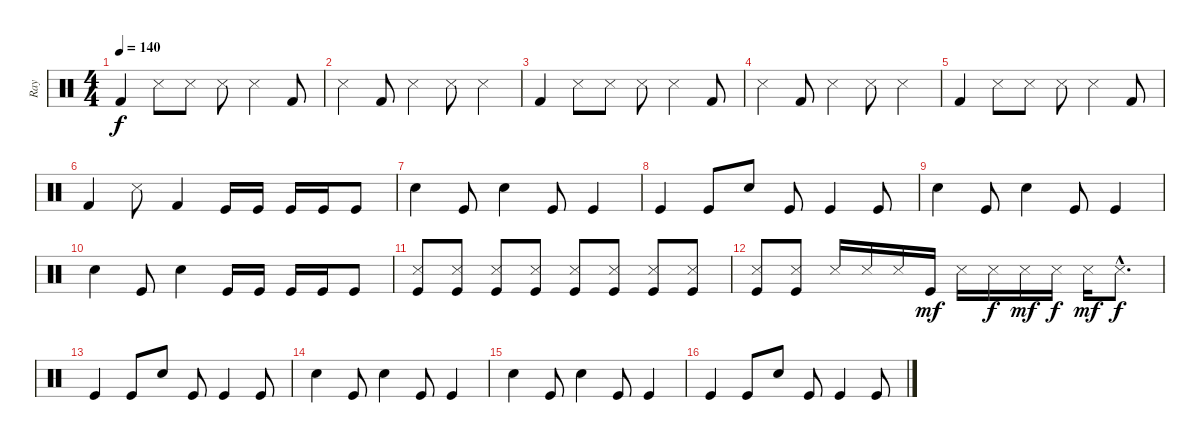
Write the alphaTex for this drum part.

\track ("Ray" "Ray") {instrument percussion}
\staff {score}
\articulation defaults
\ts (4 4)
\tempo 140
\clef neutral
\ks c "Kick (hit) 2".4{dy f} "Snare (side stick) 3".8 "Snare (side stick) 3".8 "Snare (side stick) 3".8 "Snare (side stick) 3".4 "Kick (hit) 2".8
|
"Snare (side stick) 3".4 "Kick (hit) 2".8 "Snare (side stick) 3".4 "Snare (side stick) 3".8 "Snare (side stick) 3".4 |
"Kick (hit) 2".4 "Snare (side stick) 3".8 "Snare (side stick) 3".8 "Snare (side stick) 3".8 "Snare (side stick) 3".4 "Kick (hit) 2".8 |
"Snare (side stick) 3".4 "Kick (hit) 2".8 "Snare (side stick) 3".4 "Snare (side stick) 3".8 "Snare (side stick) 3".4 |
"Kick (hit) 2".4 "Snare (side stick) 3".8 "Snare (side stick) 3".8 "Snare (side stick) 3".8 "Snare (side stick) 3".4 "Kick (hit) 2".8 |
"Kick (hit) 2".4 "Snare (side stick) 3".8 "Kick (hit) 2".4 "Kick (hit)".16 "Kick (hit)".16 "Kick (hit)".16 "Kick (hit)".16 "Kick (hit)".8 |
"Snare (hit) 2".4 "Kick (hit)".8 "Snare (hit) 2".4 "Kick (hit)".8 "Kick (hit)".4 |
"Kick (hit)".4 "Kick (hit)".8 "Snare (hit) 2".8 "Kick (hit)".8 "Kick (hit)".4 "Kick (hit)".8 |
"Snare (hit) 2".4 "Kick (hit)".8 "Snare (hit) 2".4 "Kick (hit)".8 "Kick (hit)".4 |
"Snare (hit) 2".4 "Kick (hit)".8 "Snare (hit) 2".4 "Kick (hit)".16 "Kick (hit)".16 "Kick (hit)".16 "Kick (hit)".16 "Kick (hit)".8 |
("Kick (hit)" "Snare (side stick) 3").8 ("Kick (hit)" "Snare (side stick) 3").8 ("Kick (hit)" "Snare (side stick) 3").8 ("Kick (hit)" "Snare (side stick) 3").8 ("Kick (hit)" "Snare (side stick) 3").8 ("Kick (hit)" "Snare (side stick) 3").8 ("Kick (hit)" "Snare (side stick) 3").8 ("Kick (hit)" "Snare (side stick) 3").8 |
("Kick (hit)" "Snare (side stick) 3").8 ("Kick (hit)" "Snare (side stick) 3").8 "Snare (side stick) 3".16 "Snare (side stick) 3".16 "Snare (side stick) 3".16 "Kick (hit)".16{dy mf} "Snare (side stick) 3".16 "Snare (side stick) 3".16{dy f} "Snare (side stick) 3".16{dy mf} "Snare (side stick) 3".16{dy f} "Snare (side stick) 3".16{dy mf} "Snare (side stick) 3"{hac}.8{d dy f} |
"Kick (hit)".4 "Kick (hit)".8 "Snare (hit) 2".8 "Kick (hit)".8 "Kick (hit)".4 "Kick (hit)".8 |
"Snare (hit) 2".4 "Kick (hit)".8 "Snare (hit) 2".4 "Kick (hit)".8 "Kick (hit)".4 |
"Snare (hit) 2".4 "Kick (hit)".8 "Snare (hit) 2".4 "Kick (hit)".8 "Kick (hit)".4 |
"Kick (hit)".4 "Kick (hit)".8 "Snare (hit) 2".8 "Kick (hit)".8 "Kick (hit)".4 "Kick (hit)".8
